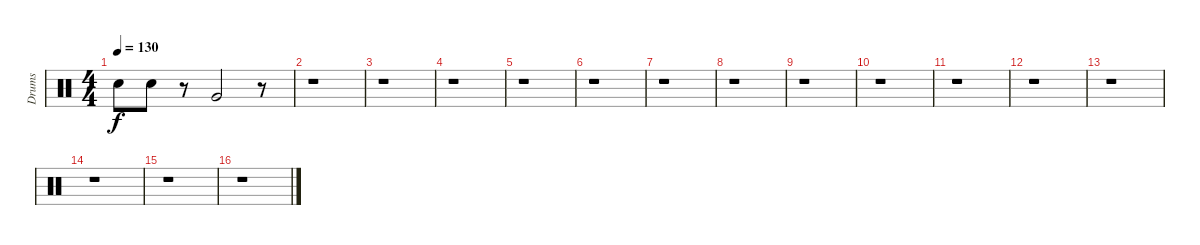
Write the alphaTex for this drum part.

\track ("Drums" "Drums") {instrument percussion}
\staff {score}
\articulation defaults
\ts (4 4)
\tempo 130
\clef neutral
\ks c "Snare (hit) 2".8{dy f} "Electric Snare (hit)".8
r.8 "Very Low Tom (hit)".2 r.8 |
r.1 |
r.1 |
r.1 |
r.1 |
r.1 |
r.1 |
r.1 |
r.1 |
r.1 |
r.1 |
r.1 |
r.1 |
r.1 |
r.1 |
r.1
